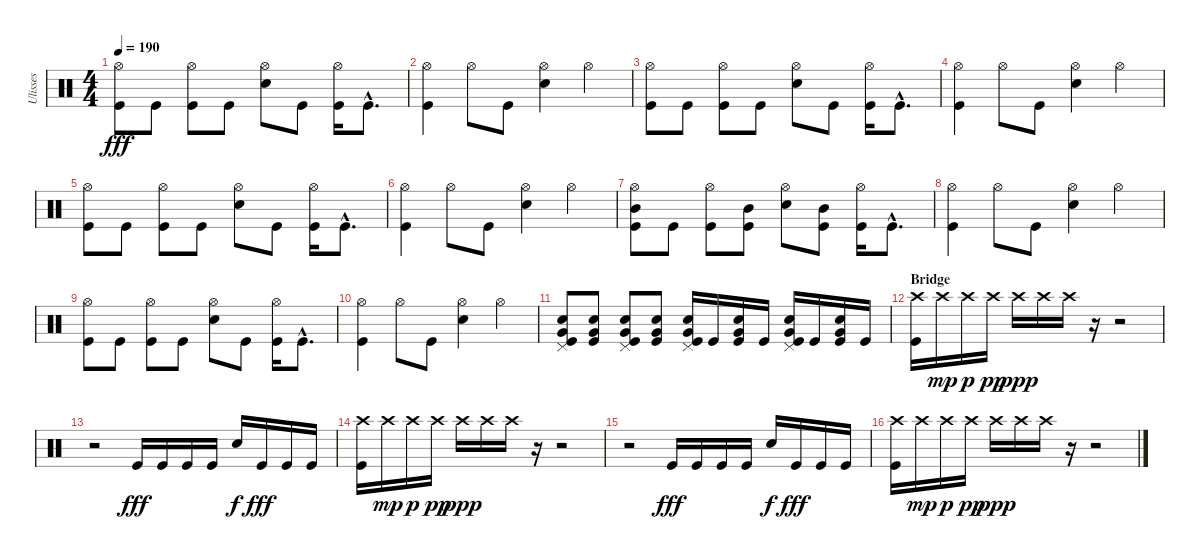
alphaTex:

\track ("Ulisses" "Ulisses") {instrument percussion}
\staff {score}
\articulation defaults
\ts (4 4)
\tempo 190
\clef neutral
\ks c
("Hi-Hat (open)" "Kick (hit)").8{dy fff} "Kick (hit)".8 ("Hi-Hat (open)" "Kick (hit)").8 "Kick (hit)".8 ("Hi-Hat (open)" "Electric Snare (hit)").8 "Kick (hit)".8 ("Hi-Hat (open)" "Kick (hit)").16 "Kick (hit)"{hac}.8{d} |
("Hi-Hat (open)" "Kick (hit)").4 "Hi-Hat (open)".8 "Kick (hit)".8 ("Hi-Hat (open)" "Electric Snare (hit)").4 "Hi-Hat (open)".4 |
("Hi-Hat (open)" "Kick (hit)").8 "Kick (hit)".8 ("Hi-Hat (open)" "Kick (hit)").8 "Kick (hit)".8 ("Hi-Hat (open)" "Electric Snare (hit)").8 "Kick (hit)".8 ("Hi-Hat (open)" "Kick (hit)").16 "Kick (hit)"{hac}.8{d} |
("Hi-Hat (open)" "Kick (hit)").4 "Hi-Hat (open)".8 "Kick (hit)".8 ("Hi-Hat (open)" "Electric Snare (hit)").4 "Hi-Hat (open)".4 |
("Hi-Hat (open)" "Kick (hit)").8 "Kick (hit)".8 ("Hi-Hat (open)" "Kick (hit)").8 "Kick (hit)".8 ("Hi-Hat (open)" "Electric Snare (hit)").8 "Kick (hit)".8 ("Hi-Hat (open)" "Kick (hit)").16 "Kick (hit)"{hac}.8{d} |
("Hi-Hat (open)" "Kick (hit)").4 "Hi-Hat (open)".8 "Kick (hit)".8 ("Hi-Hat (open)" "Electric Snare (hit)").4 "Hi-Hat (open)".4 |
("Hi-Hat (open)" "Mid Tom (hit)" "Kick (hit)").8 "Kick (hit)".8 ("Hi-Hat (open)" "Kick (hit)").8 ("Mid Tom (hit)" "Kick (hit)").8 ("Hi-Hat (open)" "Electric Snare (hit)").8 ("Mid Tom (hit)" "Kick (hit)").8 ("Hi-Hat (open)" "Kick (hit)").16 "Kick (hit)"{hac}.8{d} |
("Hi-Hat (open)" "Kick (hit)").4 "Hi-Hat (open)".8 "Kick (hit)".8 ("Hi-Hat (open)" "Electric Snare (hit)").4 "Hi-Hat (open)".4 |
("Hi-Hat (open)" "Kick (hit)").8 "Kick (hit)".8 ("Hi-Hat (open)" "Kick (hit)").8 "Kick (hit)".8 ("Hi-Hat (open)" "Electric Snare (hit)").8 "Kick (hit)".8 ("Hi-Hat (open)" "Kick (hit)").16 "Kick (hit)"{hac}.8{d} |
("Hi-Hat (open)" "Kick (hit)").4 "Hi-Hat (open)".8 "Kick (hit)".8 ("Hi-Hat (open)" "Electric Snare (hit)").4 "Hi-Hat (open)".4 |
("Pedal Hi-Hat (hit)" "Electric Snare (hit)" "Very Low Tom (hit)" "Kick (hit)").8 ("Electric Snare (hit)" "Very Low Tom (hit)" "Kick (hit)").8 ("Pedal Hi-Hat (hit)" "Electric Snare (hit)" "Very Low Tom (hit)" "Kick (hit)").8 ("Snare (hit) 2" "Very Low Tom (hit)" "Kick (hit)").8 ("Pedal Hi-Hat (hit)" "Electric Snare (hit)" "Very Low Tom (hit)" "Kick (hit)").16 "Kick (hit)".16 ("Electric Snare (hit)" "Very Low Tom (hit)" "Kick (hit)").16 "Kick (hit)".16 ("Pedal Hi-Hat (hit)" "Electric Snare (hit)" "Very Low Tom (hit)" "Kick (hit)").16 "Kick (hit)".16 ("Electric Snare (hit)" "Very Low Tom (hit)" "Kick (hit)").16 "Kick (hit)".16 |
\section ("" "Bridge")
("Crash high (hit)" "Kick (hit)").16 "Crash high (hit)".16{dy mp} "Crash high (hit)".16{dy p} "Crash high (hit)".16{dy pp} "Crash high (hit)".16{dy ppp} "Crash high (hit)".16 "Crash high (hit)".16 r.16 r.2 |
r.2 "Kick (hit)".16{dy fff} "Kick (hit)".16 "Kick (hit)".16 "Kick (hit)".16 "Electric Snare (hit)".16{dy f} "Kick (hit)".16{dy fff} "Kick (hit)".16 "Kick (hit)".16 |
("Crash high (hit)" "Kick (hit)").16 "Crash high (hit)".16{dy mp} "Crash high (hit)".16{dy p} "Crash high (hit)".16{dy pp} "Crash high (hit)".16{dy ppp} "Crash high (hit)".16 "Crash high (hit)".16 r.16 r.2 |
r.2 "Kick (hit)".16{dy fff} "Kick (hit)".16 "Kick (hit)".16 "Kick (hit)".16 "Electric Snare (hit)".16{dy f} "Kick (hit)".16{dy fff} "Kick (hit)".16 "Kick (hit)".16 |
("Crash high (hit)" "Kick (hit)").16 "Crash high (hit)".16{dy mp} "Crash high (hit)".16{dy p} "Crash high (hit)".16{dy pp} "Crash high (hit)".16{dy ppp} "Crash high (hit)".16 "Crash high (hit)".16 r.16 r.2
